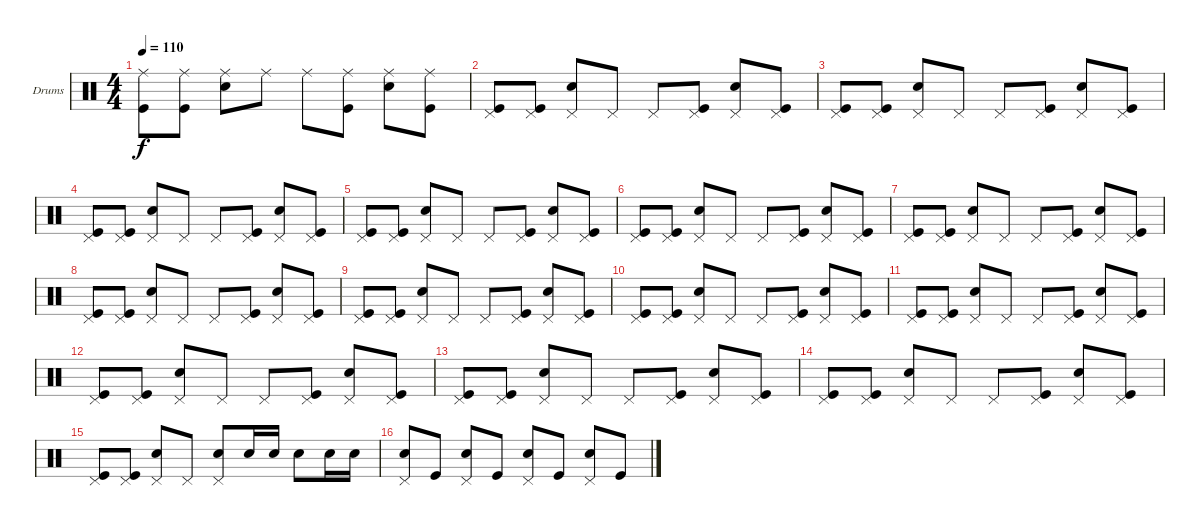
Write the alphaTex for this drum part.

\defaultSystemsLayout 4
\bracketExtendMode groupsimilarinstruments
\firstSystemTrackNameOrientation horizontal
\otherSystemsTrackNameOrientation horizontal
\track ("Drumkit" "Drums") {instrument percussion}
\staff {score}
\articulation defaults
\ts (4 4)
\tempo 110
\clef neutral
\ks c
("Kick (hit)" "Ride (middle)").8{dy f} ("Kick (hit)" "Ride (middle)").8 ("Snare (hit) 2" "Ride (middle)").8 "Ride (middle)".8 "Ride (middle)".8 ("Kick (hit)" "Ride (middle)").8 ("Snare (hit) 2" "Ride (middle)").8 ("Kick (hit)" "Ride (middle)").8 |
("Pedal Hi-Hat (hit)" "Kick (hit)").8 ("Pedal Hi-Hat (hit)" "Kick (hit)").8 ("Pedal Hi-Hat (hit)" "Snare (hit) 2").8 "Pedal Hi-Hat (hit)".8 "Pedal Hi-Hat (hit)".8 ("Pedal Hi-Hat (hit)" "Kick (hit)").8 ("Pedal Hi-Hat (hit)" "Snare (hit) 2").8 ("Pedal Hi-Hat (hit)" "Kick (hit)").8 |
("Pedal Hi-Hat (hit)" "Kick (hit)").8 ("Pedal Hi-Hat (hit)" "Kick (hit)").8 ("Pedal Hi-Hat (hit)" "Snare (hit) 2").8 "Pedal Hi-Hat (hit)".8 "Pedal Hi-Hat (hit)".8 ("Pedal Hi-Hat (hit)" "Kick (hit)").8 ("Pedal Hi-Hat (hit)" "Snare (hit) 2").8 ("Pedal Hi-Hat (hit)" "Kick (hit)").8 |
("Pedal Hi-Hat (hit)" "Kick (hit)").8 ("Pedal Hi-Hat (hit)" "Kick (hit)").8 ("Pedal Hi-Hat (hit)" "Snare (hit) 2").8 "Pedal Hi-Hat (hit)".8 "Pedal Hi-Hat (hit)".8 ("Pedal Hi-Hat (hit)" "Kick (hit)").8 ("Pedal Hi-Hat (hit)" "Snare (hit) 2").8 ("Pedal Hi-Hat (hit)" "Kick (hit)").8 |
("Pedal Hi-Hat (hit)" "Kick (hit)").8 ("Pedal Hi-Hat (hit)" "Kick (hit)").8 ("Pedal Hi-Hat (hit)" "Snare (hit) 2").8 "Pedal Hi-Hat (hit)".8 "Pedal Hi-Hat (hit)".8 ("Pedal Hi-Hat (hit)" "Kick (hit)").8 ("Pedal Hi-Hat (hit)" "Snare (hit) 2").8 ("Pedal Hi-Hat (hit)" "Kick (hit)").8 |
("Pedal Hi-Hat (hit)" "Kick (hit)").8 ("Pedal Hi-Hat (hit)" "Kick (hit)").8 ("Pedal Hi-Hat (hit)" "Snare (hit) 2").8 "Pedal Hi-Hat (hit)".8 "Pedal Hi-Hat (hit)".8 ("Pedal Hi-Hat (hit)" "Kick (hit)").8 ("Pedal Hi-Hat (hit)" "Snare (hit) 2").8 ("Pedal Hi-Hat (hit)" "Kick (hit)").8 |
("Pedal Hi-Hat (hit)" "Kick (hit)").8 ("Pedal Hi-Hat (hit)" "Kick (hit)").8 ("Pedal Hi-Hat (hit)" "Snare (hit) 2").8 "Pedal Hi-Hat (hit)".8 "Pedal Hi-Hat (hit)".8 ("Pedal Hi-Hat (hit)" "Kick (hit)").8 ("Pedal Hi-Hat (hit)" "Snare (hit) 2").8 ("Pedal Hi-Hat (hit)" "Kick (hit)").8 |
("Pedal Hi-Hat (hit)" "Kick (hit)").8 ("Pedal Hi-Hat (hit)" "Kick (hit)").8 ("Pedal Hi-Hat (hit)" "Snare (hit) 2").8 "Pedal Hi-Hat (hit)".8 "Pedal Hi-Hat (hit)".8 ("Pedal Hi-Hat (hit)" "Kick (hit)").8 ("Pedal Hi-Hat (hit)" "Snare (hit) 2").8 ("Pedal Hi-Hat (hit)" "Kick (hit)").8 |
("Pedal Hi-Hat (hit)" "Kick (hit)").8 ("Pedal Hi-Hat (hit)" "Kick (hit)").8 ("Pedal Hi-Hat (hit)" "Snare (hit) 2").8 "Pedal Hi-Hat (hit)".8 "Pedal Hi-Hat (hit)".8 ("Pedal Hi-Hat (hit)" "Kick (hit)").8 ("Pedal Hi-Hat (hit)" "Snare (hit) 2").8 ("Pedal Hi-Hat (hit)" "Kick (hit)").8 |
("Pedal Hi-Hat (hit)" "Kick (hit)").8 ("Pedal Hi-Hat (hit)" "Kick (hit)").8 ("Pedal Hi-Hat (hit)" "Snare (hit) 2").8 "Pedal Hi-Hat (hit)".8 "Pedal Hi-Hat (hit)".8 ("Pedal Hi-Hat (hit)" "Kick (hit)").8 ("Pedal Hi-Hat (hit)" "Snare (hit) 2").8 ("Pedal Hi-Hat (hit)" "Kick (hit)").8 |
("Pedal Hi-Hat (hit)" "Kick (hit)").8 ("Pedal Hi-Hat (hit)" "Kick (hit)").8 ("Pedal Hi-Hat (hit)" "Snare (hit) 2").8 "Pedal Hi-Hat (hit)".8 "Pedal Hi-Hat (hit)".8 ("Pedal Hi-Hat (hit)" "Kick (hit)").8 ("Pedal Hi-Hat (hit)" "Snare (hit) 2").8 ("Pedal Hi-Hat (hit)" "Kick (hit)").8 |
("Pedal Hi-Hat (hit)" "Kick (hit)").8 ("Pedal Hi-Hat (hit)" "Kick (hit)").8 ("Pedal Hi-Hat (hit)" "Snare (hit) 2").8 "Pedal Hi-Hat (hit)".8 "Pedal Hi-Hat (hit)".8 ("Pedal Hi-Hat (hit)" "Kick (hit)").8 ("Pedal Hi-Hat (hit)" "Snare (hit) 2").8 ("Pedal Hi-Hat (hit)" "Kick (hit)").8 |
("Pedal Hi-Hat (hit)" "Kick (hit)").8 ("Pedal Hi-Hat (hit)" "Kick (hit)").8 ("Pedal Hi-Hat (hit)" "Snare (hit) 2").8 "Pedal Hi-Hat (hit)".8 "Pedal Hi-Hat (hit)".8 ("Pedal Hi-Hat (hit)" "Kick (hit)").8 ("Pedal Hi-Hat (hit)" "Snare (hit) 2").8 ("Pedal Hi-Hat (hit)" "Kick (hit)").8 |
("Pedal Hi-Hat (hit)" "Kick (hit)").8 ("Pedal Hi-Hat (hit)" "Kick (hit)").8 ("Pedal Hi-Hat (hit)" "Snare (hit) 2").8 "Pedal Hi-Hat (hit)".8 "Pedal Hi-Hat (hit)".8 ("Pedal Hi-Hat (hit)" "Kick (hit)").8 ("Pedal Hi-Hat (hit)" "Snare (hit) 2").8 ("Pedal Hi-Hat (hit)" "Kick (hit)").8 |
("Pedal Hi-Hat (hit)" "Kick (hit)").8 ("Pedal Hi-Hat (hit)" "Kick (hit)").8 ("Pedal Hi-Hat (hit)" "Snare (hit) 2").8 "Pedal Hi-Hat (hit)".8 ("Pedal Hi-Hat (hit)" "Snare (hit) 2").8 "Snare (hit) 2".16 "Snare (hit) 2".16 "Snare (hit) 2".8 "Snare (hit) 2".16 "Snare (hit) 2".16 |
("Pedal Hi-Hat (hit)" "Snare (hit) 2").8 "Kick (hit)".8 ("Pedal Hi-Hat (hit)" "Snare (hit) 2").8 "Kick (hit)".8 ("Pedal Hi-Hat (hit)" "Snare (hit) 2").8 "Kick (hit)".8 ("Pedal Hi-Hat (hit)" "Snare (hit) 2").8 "Kick (hit)".8
